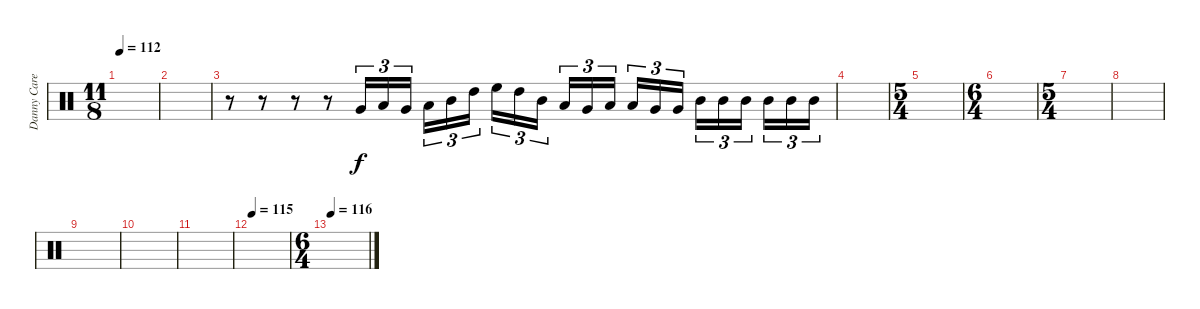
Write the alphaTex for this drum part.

\track ("Danny Carey (drum)" "Danny Care") {instrument percussion}
\staff {score}
\articulation defaults
\ts (11 8)
\tempo 112
\clef neutral
\ks c
|
|
r.8 r.8 r.8 r.8 "Very Low Tom (hit)".16{tu (3 2)} "Low Tom (hit)".16{tu (3 2)} "Very Low Tom (hit)".16{tu (3 2)} "Low Tom (hit)".16{tu (3 2)} "Mid Tom (hit)".16{tu (3 2)} "High Tom (hit)".16{tu (3 2)} "High Floor Tom (hit)".16{tu (3 2)} "High Tom (hit)".16{tu (3 2)} "Mid Tom (hit)".16{tu (3 2)} "Low Tom (hit)".16{tu (3 2)} "Very Low Tom (hit)".16{tu (3 2)} "Low Tom (hit)".16{tu (3 2)} "Low Tom (hit)".16{tu (3 2)} "Very Low Tom (hit)".16{tu (3 2)} "Very Low Tom (hit)".16{tu (3 2)} "Mid Tom (hit)".16{tu (3 2)} "Mid Tom (hit)".16{tu (3 2)} "Mid Tom (hit)".16{tu (3 2)} "Mid Tom (hit)".16{tu (3 2)} "Mid Tom (hit)".16{tu (3 2)} "Mid Tom (hit)".16{tu (3 2)} |
|
\ts (5 4)
|
\ts (6 4)
|
\ts (5 4)
|
|
|
|
|
\tempo 115
|
\ts (6 4)
\tempo 116
